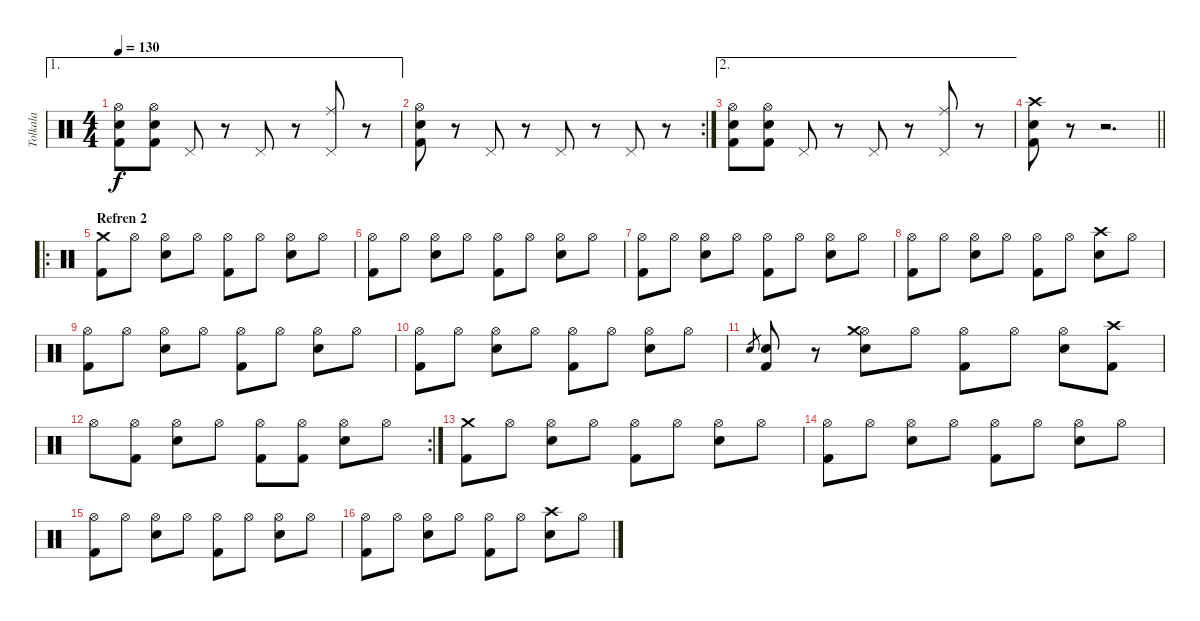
\track ("Tolkala" "Tolkala") {instrument percussion}
\staff {score}
\articulation defaults
\ae 1
\ts (4 4)
\tempo 130
\clef neutral
\ks c
("Hi-Hat (open)" "Snare (hit) 2" "Kick (hit) 2").8{dy f} ("Hi-Hat (open)" "Snare (hit) 2" "Kick (hit) 2").8 "Pedal Hi-Hat (hit)".8 r.8 "Pedal Hi-Hat (hit)".8 r.8 ("Pedal Hi-Hat (hit)" "Ride (middle)").8 r.8 |
\rc 2
("Hi-Hat (open)" "Snare (hit) 2" "Kick (hit) 2").8 r.8 "Pedal Hi-Hat (hit)".8 r.8 "Pedal Hi-Hat (hit)".8 r.8 "Pedal Hi-Hat (hit)".8 r.8 |
\ae 2
("Hi-Hat (open)" "Snare (hit) 2" "Kick (hit) 2").8 ("Hi-Hat (open)" "Snare (hit) 2" "Kick (hit) 2").8 "Pedal Hi-Hat (hit)".8 r.8 "Pedal Hi-Hat (hit)".8 r.8 ("Pedal Hi-Hat (hit)" "Ride (middle)").8 r.8 |
\barLineRight lightlight
("Crash high (hit)" "Snare (hit) 2" "Kick (hit) 2").8 r.8 r.2{d} |
\ro
\section ("" "Refren 2")
("Crash medium (hit)" "Kick (hit) 2").8 "Hi-Hat (open)".8 ("Hi-Hat (open)" "Snare (hit) 2").8 "Hi-Hat (open)".8 ("Hi-Hat (open)" "Kick (hit) 2").8 "Hi-Hat (open)".8 ("Hi-Hat (open)" "Snare (hit) 2").8 "Hi-Hat (open)".8 |
("Hi-Hat (open)" "Kick (hit) 2").8 "Hi-Hat (open)".8 ("Hi-Hat (open)" "Snare (hit) 2").8 "Hi-Hat (open)".8 ("Hi-Hat (open)" "Kick (hit) 2").8 "Hi-Hat (open)".8 ("Hi-Hat (open)" "Snare (hit) 2").8 "Hi-Hat (open)".8 |
("Hi-Hat (open)" "Kick (hit) 2").8 "Hi-Hat (open)".8 ("Hi-Hat (open)" "Snare (hit) 2").8 "Hi-Hat (open)".8 ("Hi-Hat (open)" "Kick (hit) 2").8 "Hi-Hat (open)".8 ("Hi-Hat (open)" "Snare (hit) 2").8 "Hi-Hat (open)".8 |
("Hi-Hat (open)" "Kick (hit) 2").8 "Hi-Hat (open)".8 ("Hi-Hat (open)" "Snare (hit) 2").8 "Hi-Hat (open)".8 ("Hi-Hat (open)" "Kick (hit) 2").8 "Hi-Hat (open)".8 ("Crash high (hit)" "Snare (hit) 2").8 "Hi-Hat (open)".8 |
("Hi-Hat (open)" "Kick (hit) 2").8 "Hi-Hat (open)".8 ("Hi-Hat (open)" "Snare (hit) 2").8 "Hi-Hat (open)".8 ("Hi-Hat (open)" "Kick (hit) 2").8 "Hi-Hat (open)".8 ("Hi-Hat (open)" "Snare (hit) 2").8 "Hi-Hat (open)".8 |
("Hi-Hat (open)" "Kick (hit) 2").8 "Hi-Hat (open)".8 ("Hi-Hat (open)" "Snare (hit) 2").8 "Hi-Hat (open)".8 ("Hi-Hat (open)" "Kick (hit) 2").8 "Hi-Hat (open)".8 ("Hi-Hat (open)" "Snare (hit) 2").8 "Hi-Hat (open)".8 |
"Snare (hit) 2".8{gr} ("Snare (hit) 2" "Kick (hit) 2").8 r.8 ("Hi-Hat (open)" "Crash medium (hit)" "Snare (hit) 2").8 "Hi-Hat (open)".8 ("Hi-Hat (open)" "Kick (hit) 2").8 "Hi-Hat (open)".8 ("Hi-Hat (open)" "Snare (hit) 2").8 ("Crash high (hit)" "Kick (hit) 2").8 |
\rc 2 "Hi-Hat (open)".8
("Hi-Hat (open)" "Kick (hit) 2").8 ("Hi-Hat (open)" "Snare (hit) 2").8 "Hi-Hat (open)".8 ("Hi-Hat (open)" "Kick (hit) 2").8 ("Hi-Hat (open)" "Kick (hit) 2").8 ("Hi-Hat (open)" "Snare (hit) 2").8 "Hi-Hat (open)".8 |
("Crash medium (hit)" "Kick (hit) 2").8 "Hi-Hat (open)".8 ("Hi-Hat (open)" "Snare (hit) 2").8 "Hi-Hat (open)".8 ("Hi-Hat (open)" "Kick (hit) 2").8 "Hi-Hat (open)".8 ("Hi-Hat (open)" "Snare (hit) 2").8 "Hi-Hat (open)".8 |
("Hi-Hat (open)" "Kick (hit) 2").8 "Hi-Hat (open)".8 ("Hi-Hat (open)" "Snare (hit) 2").8 "Hi-Hat (open)".8 ("Hi-Hat (open)" "Kick (hit) 2").8 "Hi-Hat (open)".8 ("Hi-Hat (open)" "Snare (hit) 2").8 "Hi-Hat (open)".8 |
("Hi-Hat (open)" "Kick (hit) 2").8 "Hi-Hat (open)".8 ("Hi-Hat (open)" "Snare (hit) 2").8 "Hi-Hat (open)".8 ("Hi-Hat (open)" "Kick (hit) 2").8 "Hi-Hat (open)".8 ("Hi-Hat (open)" "Snare (hit) 2").8 "Hi-Hat (open)".8 |
("Hi-Hat (open)" "Kick (hit) 2").8 "Hi-Hat (open)".8 ("Hi-Hat (open)" "Snare (hit) 2").8 "Hi-Hat (open)".8 ("Hi-Hat (open)" "Kick (hit) 2").8 "Hi-Hat (open)".8 ("Crash high (hit)" "Snare (hit) 2").8 "Hi-Hat (open)".8
